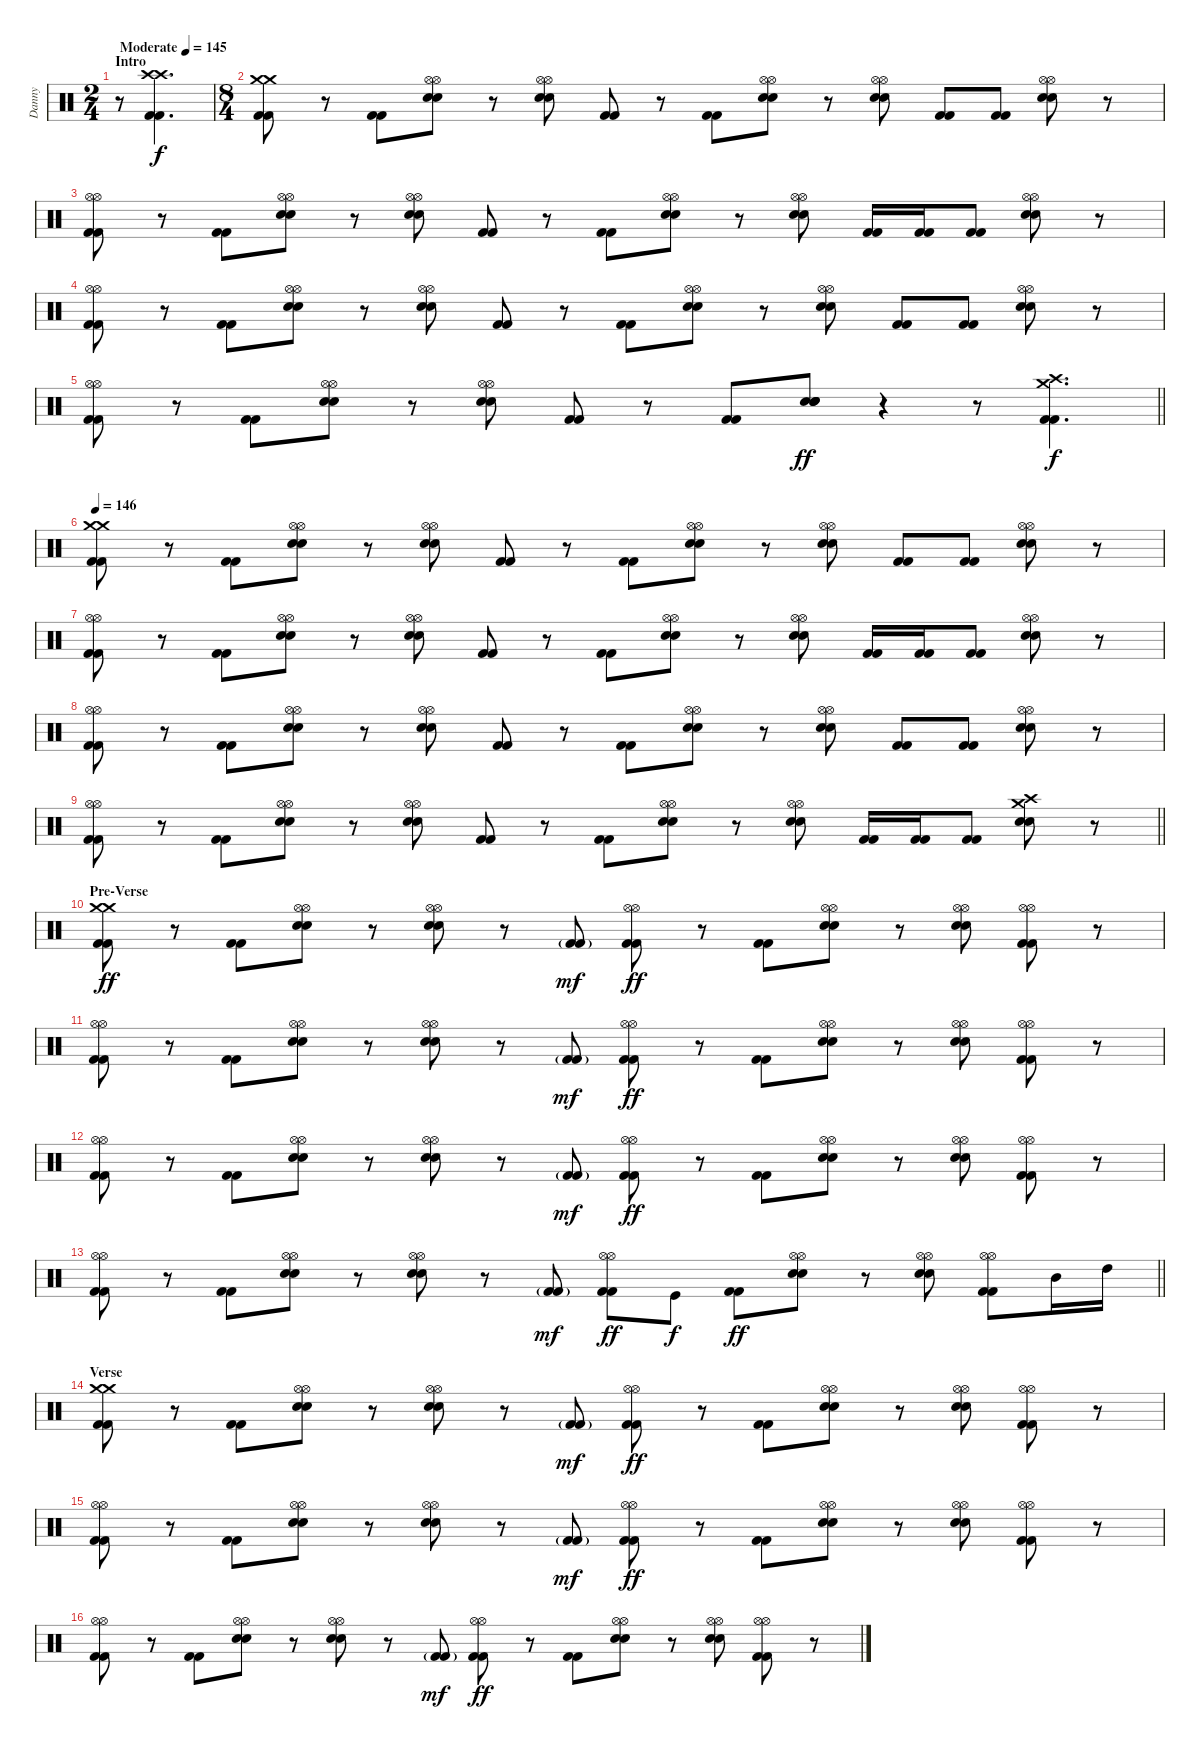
\track ("Danny" "Danny") {instrument percussion}
\staff {score}
\articulation defaults
\ts (2 4)
\section ("" "Intro")
\tempo (145 "Moderate")
\clef neutral
\ks c
r.8{dy f} ("Crash high (hit)" "Kick (hit) 2" "Kick (hit) 2" "Crash high (hit)").4{d} |
\ts (8 4)
("Crash medium (hit)" "Kick (hit) 2" "Kick (hit) 2" "Crash medium (hit)").8 r.8 ("Kick (hit) 2" "Kick (hit) 2").8 ("Hi-Hat (open)" "Snare (hit) 2" "Snare (hit) 2" "Hi-Hat (open)").8 r.8 ("Hi-Hat (open)" "Snare (hit) 2" "Snare (hit) 2" "Hi-Hat (open)").8 ("Kick (hit) 2" "Kick (hit) 2").8 r.8 ("Kick (hit) 2" "Kick (hit) 2").8 ("Hi-Hat (open)" "Snare (hit) 2" "Snare (hit) 2" "Hi-Hat (open)").8 r.8 ("Hi-Hat (open)" "Snare (hit) 2" "Snare (hit) 2" "Hi-Hat (open)").8 ("Kick (hit) 2" "Kick (hit) 2").8 ("Kick (hit) 2" "Kick (hit) 2").8 ("Hi-Hat (open)" "Snare (hit) 2" "Snare (hit) 2" "Hi-Hat (open)").8 r.8 |
("Hi-Hat (open)" "Kick (hit) 2" "Kick (hit) 2" "Hi-Hat (open)").8 r.8 ("Kick (hit) 2" "Kick (hit) 2").8 ("Hi-Hat (open)" "Snare (hit) 2" "Snare (hit) 2" "Hi-Hat (open)").8 r.8 ("Hi-Hat (open)" "Snare (hit) 2" "Snare (hit) 2" "Hi-Hat (open)").8 ("Kick (hit) 2" "Kick (hit) 2").8 r.8 ("Kick (hit) 2" "Kick (hit) 2").8 ("Hi-Hat (open)" "Snare (hit) 2" "Snare (hit) 2" "Hi-Hat (open)").8 r.8 ("Hi-Hat (open)" "Snare (hit) 2" "Snare (hit) 2" "Hi-Hat (open)").8 ("Kick (hit) 2" "Kick (hit) 2").16 ("Kick (hit) 2" "Kick (hit) 2").16 ("Kick (hit) 2" "Kick (hit) 2").8 ("Hi-Hat (open)" "Snare (hit) 2" "Snare (hit) 2" "Hi-Hat (open)").8 r.8 |
("Hi-Hat (open)" "Kick (hit) 2" "Kick (hit) 2" "Hi-Hat (open)").8 r.8 ("Kick (hit) 2" "Kick (hit) 2").8 ("Hi-Hat (open)" "Snare (hit) 2" "Snare (hit) 2" "Hi-Hat (open)").8 r.8 ("Hi-Hat (open)" "Snare (hit) 2" "Snare (hit) 2" "Hi-Hat (open)").8 ("Kick (hit) 2" "Kick (hit) 2").8 r.8 ("Kick (hit) 2" "Kick (hit) 2").8 ("Hi-Hat (open)" "Snare (hit) 2" "Snare (hit) 2" "Hi-Hat (open)").8 r.8 ("Hi-Hat (open)" "Snare (hit) 2" "Snare (hit) 2" "Hi-Hat (open)").8 ("Kick (hit) 2" "Kick (hit) 2").8 ("Kick (hit) 2" "Kick (hit) 2").8 ("Hi-Hat (open)" "Snare (hit) 2" "Snare (hit) 2" "Hi-Hat (open)").8 r.8 |
\barLineRight lightlight
("Hi-Hat (open)" "Kick (hit) 2" "Kick (hit) 2" "Hi-Hat (open)").8 r.8 ("Kick (hit) 2" "Kick (hit) 2").8 ("Hi-Hat (open)" "Snare (hit) 2" "Snare (hit) 2" "Hi-Hat (open)").8 r.8 ("Hi-Hat (open)" "Snare (hit) 2" "Snare (hit) 2" "Hi-Hat (open)").8 ("Kick (hit) 2" "Kick (hit) 2").8 r.8 ("Kick (hit) 2" "Kick (hit) 2").8 ("Snare (hit) 2" "Snare (hit) 2" "Snare (hit) 2" "Snare (hit) 2").8{dy ff} r.4 r.8 ("Crash medium (hit)" "Kick (hit) 2" "Kick (hit) 2" "Crash high (hit)").4{d dy f} |
\section ("" "")
\tempo 146
("Crash medium (hit)" "Kick (hit) 2" "Kick (hit) 2" "Crash medium (hit)").8 r.8 ("Kick (hit) 2" "Kick (hit) 2").8 ("Hi-Hat (open)" "Snare (hit) 2" "Snare (hit) 2" "Hi-Hat (open)").8 r.8 ("Hi-Hat (open)" "Snare (hit) 2" "Snare (hit) 2" "Hi-Hat (open)").8 ("Kick (hit) 2" "Kick (hit) 2").8 r.8 ("Kick (hit) 2" "Kick (hit) 2").8 ("Hi-Hat (open)" "Snare (hit) 2" "Snare (hit) 2" "Hi-Hat (open)").8 r.8 ("Hi-Hat (open)" "Snare (hit) 2" "Snare (hit) 2" "Hi-Hat (open)").8 ("Kick (hit) 2" "Kick (hit) 2").8 ("Kick (hit) 2" "Kick (hit) 2").8 ("Hi-Hat (open)" "Snare (hit) 2" "Snare (hit) 2" "Hi-Hat (open)").8 r.8 |
("Hi-Hat (open)" "Kick (hit) 2" "Kick (hit) 2" "Hi-Hat (open)").8 r.8 ("Kick (hit) 2" "Kick (hit) 2").8 ("Hi-Hat (open)" "Snare (hit) 2" "Snare (hit) 2" "Hi-Hat (open)").8 r.8 ("Hi-Hat (open)" "Snare (hit) 2" "Snare (hit) 2" "Hi-Hat (open)").8 ("Kick (hit) 2" "Kick (hit) 2").8 r.8 ("Kick (hit) 2" "Kick (hit) 2").8 ("Hi-Hat (open)" "Snare (hit) 2" "Snare (hit) 2" "Hi-Hat (open)").8 r.8 ("Hi-Hat (open)" "Snare (hit) 2" "Snare (hit) 2" "Hi-Hat (open)").8 ("Kick (hit) 2" "Kick (hit) 2").16 ("Kick (hit) 2" "Kick (hit) 2").16 ("Kick (hit) 2" "Kick (hit) 2").8 ("Hi-Hat (open)" "Snare (hit) 2" "Snare (hit) 2" "Hi-Hat (open)").8 r.8 |
("Hi-Hat (open)" "Kick (hit) 2" "Kick (hit) 2" "Hi-Hat (open)").8 r.8 ("Kick (hit) 2" "Kick (hit) 2").8 ("Hi-Hat (open)" "Snare (hit) 2" "Snare (hit) 2" "Hi-Hat (open)").8 r.8 ("Hi-Hat (open)" "Snare (hit) 2" "Snare (hit) 2" "Hi-Hat (open)").8 ("Kick (hit) 2" "Kick (hit) 2").8 r.8 ("Kick (hit) 2" "Kick (hit) 2").8 ("Hi-Hat (open)" "Snare (hit) 2" "Snare (hit) 2" "Hi-Hat (open)").8 r.8 ("Hi-Hat (open)" "Snare (hit) 2" "Snare (hit) 2" "Hi-Hat (open)").8 ("Kick (hit) 2" "Kick (hit) 2").8 ("Kick (hit) 2" "Kick (hit) 2").8 ("Hi-Hat (open)" "Snare (hit) 2" "Snare (hit) 2" "Hi-Hat (open)").8 r.8 |
\barLineRight lightlight
("Hi-Hat (open)" "Kick (hit) 2" "Kick (hit) 2" "Hi-Hat (open)").8 r.8 ("Kick (hit) 2" "Kick (hit) 2").8 ("Hi-Hat (open)" "Snare (hit) 2" "Snare (hit) 2" "Hi-Hat (open)").8 r.8 ("Hi-Hat (open)" "Snare (hit) 2" "Snare (hit) 2" "Hi-Hat (open)").8 ("Kick (hit) 2" "Kick (hit) 2").8 r.8 ("Kick (hit) 2" "Kick (hit) 2").8 ("Hi-Hat (open)" "Snare (hit) 2" "Snare (hit) 2" "Hi-Hat (open)").8 r.8 ("Hi-Hat (open)" "Snare (hit) 2" "Snare (hit) 2" "Hi-Hat (open)").8 ("Kick (hit) 2" "Kick (hit) 2").16 ("Kick (hit) 2" "Kick (hit) 2").16 ("Kick (hit) 2" "Kick (hit) 2").8 ("Crash high (hit)" "Snare (hit) 2" "Snare (hit) 2" "Crash medium (hit)").8 r.8 |
\section ("" "Pre-Verse")
("Crash medium (hit)" "Kick (hit) 2" "Kick (hit) 2" "Crash medium (hit)").8{dy ff} r.8 ("Kick (hit) 2" "Kick (hit) 2").8 ("Hi-Hat (open)" "Snare (hit) 2" "Snare (hit) 2" "Hi-Hat (open)").8 r.8 ("Hi-Hat (open)" "Snare (hit) 2" "Snare (hit) 2" "Hi-Hat (open)").8 r.8 ("Kick (hit) 2"{g} "Kick (hit) 2"{g}).8{dy mf} ("Hi-Hat (open)" "Kick (hit) 2" "Kick (hit) 2" "Hi-Hat (open)").8{dy ff} r.8 ("Kick (hit) 2" "Kick (hit) 2").8 ("Hi-Hat (open)" "Snare (hit) 2" "Snare (hit) 2" "Hi-Hat (open)").8 r.8 ("Hi-Hat (open)" "Snare (hit) 2" "Snare (hit) 2" "Hi-Hat (open)").8 ("Hi-Hat (open)" "Kick (hit) 2" "Kick (hit) 2" "Hi-Hat (open)").8 r.8 |
("Hi-Hat (open)" "Kick (hit) 2" "Kick (hit) 2" "Hi-Hat (open)").8 r.8 ("Kick (hit) 2" "Kick (hit) 2").8 ("Hi-Hat (open)" "Snare (hit) 2" "Snare (hit) 2" "Hi-Hat (open)").8 r.8 ("Hi-Hat (open)" "Snare (hit) 2" "Snare (hit) 2" "Hi-Hat (open)").8 r.8 ("Kick (hit) 2"{g} "Kick (hit) 2"{g}).8{dy mf} ("Hi-Hat (open)" "Kick (hit) 2" "Kick (hit) 2" "Hi-Hat (open)").8{dy ff} r.8 ("Kick (hit) 2" "Kick (hit) 2").8 ("Hi-Hat (open)" "Snare (hit) 2" "Snare (hit) 2" "Hi-Hat (open)").8 r.8 ("Hi-Hat (open)" "Snare (hit) 2" "Snare (hit) 2" "Hi-Hat (open)").8 ("Hi-Hat (open)" "Kick (hit) 2" "Kick (hit) 2" "Hi-Hat (open)").8 r.8 |
("Hi-Hat (open)" "Kick (hit) 2" "Kick (hit) 2" "Hi-Hat (open)").8 r.8 ("Kick (hit) 2" "Kick (hit) 2").8 ("Hi-Hat (open)" "Snare (hit) 2" "Snare (hit) 2" "Hi-Hat (open)").8 r.8 ("Hi-Hat (open)" "Snare (hit) 2" "Snare (hit) 2" "Hi-Hat (open)").8 r.8 ("Kick (hit) 2"{g} "Kick (hit) 2"{g}).8{dy mf} ("Hi-Hat (open)" "Kick (hit) 2" "Kick (hit) 2" "Hi-Hat (open)").8{dy ff} r.8 ("Kick (hit) 2" "Kick (hit) 2").8 ("Hi-Hat (open)" "Snare (hit) 2" "Snare (hit) 2" "Hi-Hat (open)").8 r.8 ("Hi-Hat (open)" "Snare (hit) 2" "Snare (hit) 2" "Hi-Hat (open)").8 ("Hi-Hat (open)" "Kick (hit) 2" "Kick (hit) 2" "Hi-Hat (open)").8 r.8 |
\barLineRight lightlight
("Hi-Hat (open)" "Kick (hit) 2" "Kick (hit) 2" "Hi-Hat (open)").8 r.8 ("Kick (hit) 2" "Kick (hit) 2").8 ("Hi-Hat (open)" "Snare (hit) 2" "Snare (hit) 2" "Hi-Hat (open)").8 r.8 ("Hi-Hat (open)" "Snare (hit) 2" "Snare (hit) 2" "Hi-Hat (open)").8 r.8 ("Kick (hit) 2"{g} "Kick (hit) 2"{g}).8{dy mf} ("Hi-Hat (open)" "Kick (hit) 2" "Kick (hit) 2" "Hi-Hat (open)").8{dy ff} "Kick (hit)".8{dy f} ("Kick (hit) 2" "Kick (hit) 2").8{dy ff} ("Hi-Hat (open)" "Snare (hit) 2" "Snare (hit) 2" "Hi-Hat (open)").8 r.8 ("Hi-Hat (open)" "Snare (hit) 2" "Snare (hit) 2" "Hi-Hat (open)").8 ("Hi-Hat (open)" "Kick (hit) 2" "Kick (hit) 2" "Hi-Hat (open)").8 "Mid Tom (hit)".16 "High Tom (hit)".16 |
\section ("" "Verse")
("Crash medium (hit)" "Kick (hit) 2" "Kick (hit) 2" "Crash medium (hit)").8 r.8 ("Kick (hit) 2" "Kick (hit) 2").8 ("Hi-Hat (open)" "Snare (hit) 2" "Snare (hit) 2" "Hi-Hat (open)").8 r.8 ("Hi-Hat (open)" "Snare (hit) 2" "Snare (hit) 2" "Hi-Hat (open)").8 r.8 ("Kick (hit) 2"{g} "Kick (hit) 2"{g}).8{dy mf} ("Hi-Hat (open)" "Kick (hit) 2" "Kick (hit) 2" "Hi-Hat (open)").8{dy ff} r.8 ("Kick (hit) 2" "Kick (hit) 2").8 ("Hi-Hat (open)" "Snare (hit) 2" "Snare (hit) 2" "Hi-Hat (open)").8 r.8 ("Hi-Hat (open)" "Snare (hit) 2" "Snare (hit) 2" "Hi-Hat (open)").8 ("Hi-Hat (open)" "Kick (hit) 2" "Kick (hit) 2" "Hi-Hat (open)").8 r.8 |
("Hi-Hat (open)" "Kick (hit) 2" "Kick (hit) 2" "Hi-Hat (open)").8 r.8 ("Kick (hit) 2" "Kick (hit) 2").8 ("Hi-Hat (open)" "Snare (hit) 2" "Snare (hit) 2" "Hi-Hat (open)").8 r.8 ("Hi-Hat (open)" "Snare (hit) 2" "Snare (hit) 2" "Hi-Hat (open)").8 r.8 ("Kick (hit) 2"{g} "Kick (hit) 2"{g}).8{dy mf} ("Hi-Hat (open)" "Kick (hit) 2" "Kick (hit) 2" "Hi-Hat (open)").8{dy ff} r.8 ("Kick (hit) 2" "Kick (hit) 2").8 ("Hi-Hat (open)" "Snare (hit) 2" "Snare (hit) 2" "Hi-Hat (open)").8 r.8 ("Hi-Hat (open)" "Snare (hit) 2" "Snare (hit) 2" "Hi-Hat (open)").8 ("Hi-Hat (open)" "Kick (hit) 2" "Kick (hit) 2" "Hi-Hat (open)").8 r.8 |
("Hi-Hat (open)" "Kick (hit) 2" "Kick (hit) 2" "Hi-Hat (open)").8 r.8 ("Kick (hit) 2" "Kick (hit) 2").8 ("Hi-Hat (open)" "Snare (hit) 2" "Snare (hit) 2" "Hi-Hat (open)").8 r.8 ("Hi-Hat (open)" "Snare (hit) 2" "Snare (hit) 2" "Hi-Hat (open)").8 r.8 ("Kick (hit) 2"{g} "Kick (hit) 2"{g}).8{dy mf} ("Hi-Hat (open)" "Kick (hit) 2" "Kick (hit) 2" "Hi-Hat (open)").8{dy ff} r.8 ("Kick (hit) 2" "Kick (hit) 2").8 ("Hi-Hat (open)" "Snare (hit) 2" "Snare (hit) 2" "Hi-Hat (open)").8 r.8 ("Hi-Hat (open)" "Snare (hit) 2" "Snare (hit) 2" "Hi-Hat (open)").8 ("Hi-Hat (open)" "Kick (hit) 2" "Kick (hit) 2" "Hi-Hat (open)").8 r.8
